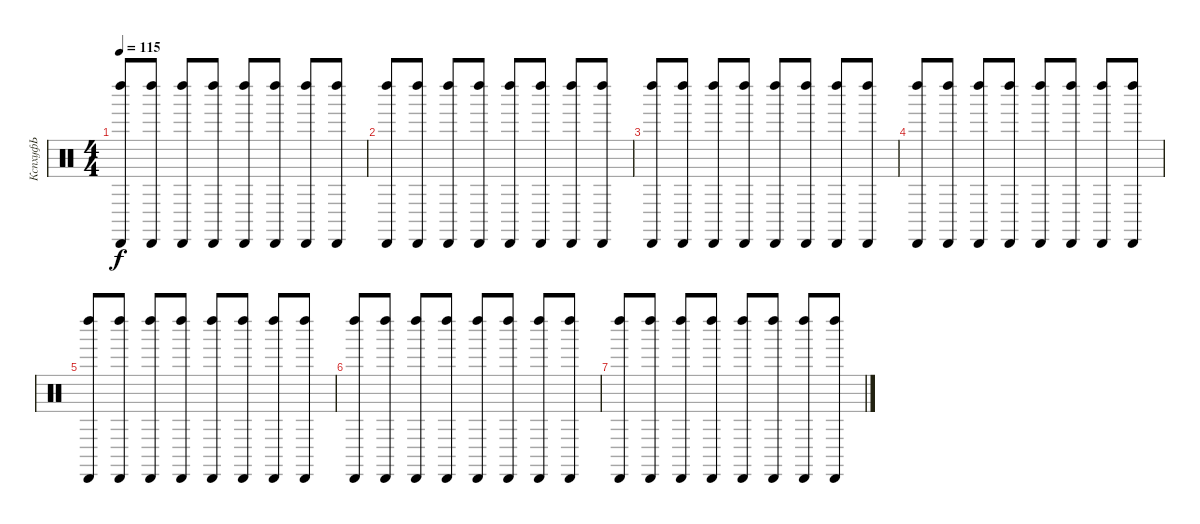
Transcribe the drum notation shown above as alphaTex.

\track ("КспхуфЬ" "КспхуфЬ") {instrument percussion}
\staff {score}
\articulation defaults
\ts (4 4)
\tempo 115
\clef neutral
\ks c
("Cabasa (hit)" "Left Maraca (hit)").8{dy f} ("Cabasa (hit)" "Left Maraca (hit)").8 ("Cabasa (hit)" "Left Maraca (hit)").8 ("Cabasa (hit)" "Left Maraca (hit)").8 ("Cabasa (hit)" "Left Maraca (hit)").8 ("Cabasa (hit)" "Left Maraca (hit)").8 ("Cabasa (hit)" "Left Maraca (hit)").8 ("Cabasa (hit)" "Left Maraca (hit)").8 |
("Cabasa (hit)" "Left Maraca (hit)").8 ("Cabasa (hit)" "Left Maraca (hit)").8 ("Cabasa (hit)" "Left Maraca (hit)").8 ("Cabasa (hit)" "Left Maraca (hit)").8 ("Cabasa (hit)" "Left Maraca (hit)").8 ("Cabasa (hit)" "Left Maraca (hit)").8 ("Cabasa (hit)" "Left Maraca (hit)").8 ("Cabasa (hit)" "Left Maraca (hit)").8 |
("Cabasa (hit)" "Left Maraca (hit)").8 ("Cabasa (hit)" "Left Maraca (hit)").8 ("Cabasa (hit)" "Left Maraca (hit)").8 ("Cabasa (hit)" "Left Maraca (hit)").8 ("Cabasa (hit)" "Left Maraca (hit)").8 ("Cabasa (hit)" "Left Maraca (hit)").8 ("Cabasa (hit)" "Left Maraca (hit)").8 ("Cabasa (hit)" "Left Maraca (hit)").8 |
("Cabasa (hit)" "Left Maraca (hit)").8 ("Cabasa (hit)" "Left Maraca (hit)").8 ("Cabasa (hit)" "Left Maraca (hit)").8 ("Cabasa (hit)" "Left Maraca (hit)").8 ("Cabasa (hit)" "Left Maraca (hit)").8 ("Cabasa (hit)" "Left Maraca (hit)").8 ("Cabasa (hit)" "Left Maraca (hit)").8 ("Cabasa (hit)" "Left Maraca (hit)").8 |
("Cabasa (hit)" "Left Maraca (hit)").8 ("Cabasa (hit)" "Left Maraca (hit)").8 ("Cabasa (hit)" "Left Maraca (hit)").8 ("Cabasa (hit)" "Left Maraca (hit)").8 ("Cabasa (hit)" "Left Maraca (hit)").8 ("Cabasa (hit)" "Left Maraca (hit)").8 ("Cabasa (hit)" "Left Maraca (hit)").8 ("Cabasa (hit)" "Left Maraca (hit)").8 |
("Cabasa (hit)" "Left Maraca (hit)").8 ("Cabasa (hit)" "Left Maraca (hit)").8 ("Cabasa (hit)" "Left Maraca (hit)").8 ("Cabasa (hit)" "Left Maraca (hit)").8 ("Cabasa (hit)" "Left Maraca (hit)").8 ("Cabasa (hit)" "Left Maraca (hit)").8 ("Cabasa (hit)" "Left Maraca (hit)").8 ("Cabasa (hit)" "Left Maraca (hit)").8 |
("Cabasa (hit)" "Left Maraca (hit)").8 ("Cabasa (hit)" "Left Maraca (hit)").8 ("Cabasa (hit)" "Left Maraca (hit)").8 ("Cabasa (hit)" "Left Maraca (hit)").8 ("Cabasa (hit)" "Left Maraca (hit)").8 ("Cabasa (hit)" "Left Maraca (hit)").8 ("Cabasa (hit)" "Left Maraca (hit)").8 ("Cabasa (hit)" "Left Maraca (hit)").8
